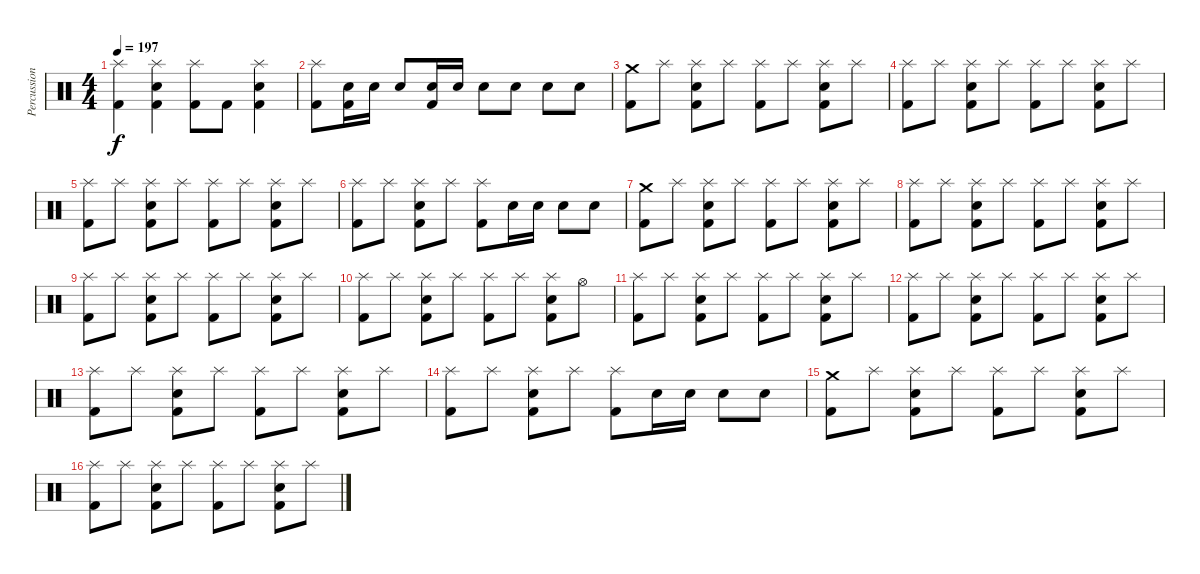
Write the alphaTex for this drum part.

\track ("Percussion" "Percussion") {instrument percussion}
\staff {score}
\articulation defaults
\ts (4 4)
\tempo 197
\clef neutral
\ks c
("Splash (hit)" "Kick (hit) 2").4{dy f} ("Snare (hit) 2" "Splash (hit)" "Kick (hit) 2").4 ("Splash (hit)" "Kick (hit) 2").8 "Kick (hit) 2".8 ("Snare (hit) 2" "Splash (hit)" "Kick (hit) 2").4 |
("Splash (hit)" "Kick (hit) 2").8 ("Snare (hit) 2" "Kick (hit) 2").16 "Snare (hit) 2".16 "Snare (hit) 2".8 ("Snare (hit) 2" "Kick (hit) 2").16 "Snare (hit) 2".16 "Snare (hit) 2".8 "Snare (hit) 2".8 "Snare (hit) 2".8 "Snare (hit) 2".8 |
("Crash medium (hit)" "Kick (hit) 2").8 "Splash (hit)".8 ("Snare (hit) 2" "Splash (hit)" "Kick (hit) 2").8 "Splash (hit)".8 ("Splash (hit)" "Kick (hit) 2").8 "Splash (hit)".8 ("Snare (hit) 2" "Splash (hit)" "Kick (hit) 2").8 "Splash (hit)".8 |
("Splash (hit)" "Kick (hit) 2").8 "Splash (hit)".8 ("Snare (hit) 2" "Splash (hit)" "Kick (hit) 2").8 "Splash (hit)".8 ("Splash (hit)" "Kick (hit) 2").8 "Splash (hit)".8 ("Snare (hit) 2" "Splash (hit)" "Kick (hit) 2").8 "Splash (hit)".8 |
("Splash (hit)" "Kick (hit) 2").8 "Splash (hit)".8 ("Snare (hit) 2" "Splash (hit)" "Kick (hit) 2").8 "Splash (hit)".8 ("Splash (hit)" "Kick (hit) 2").8 "Splash (hit)".8 ("Snare (hit) 2" "Splash (hit)" "Kick (hit) 2").8 "Splash (hit)".8 |
("Splash (hit)" "Kick (hit) 2").8 "Splash (hit)".8 ("Snare (hit) 2" "Splash (hit)" "Kick (hit) 2").8 "Splash (hit)".8 ("Splash (hit)" "Kick (hit) 2").8 "Snare (hit) 2".16 "Snare (hit) 2".16 "Snare (hit) 2".8 "Snare (hit) 2".8 |
("Crash medium (hit)" "Kick (hit) 2").8 "Splash (hit)".8 ("Snare (hit) 2" "Splash (hit)" "Kick (hit) 2").8 "Splash (hit)".8 ("Splash (hit)" "Kick (hit) 2").8 "Splash (hit)".8 ("Snare (hit) 2" "Splash (hit)" "Kick (hit) 2").8 "Splash (hit)".8 |
("Splash (hit)" "Kick (hit) 2").8 "Splash (hit)".8 ("Snare (hit) 2" "Splash (hit)" "Kick (hit) 2").8 "Splash (hit)".8 ("Splash (hit)" "Kick (hit) 2").8 "Splash (hit)".8 ("Snare (hit) 2" "Splash (hit)" "Kick (hit) 2").8 "Splash (hit)".8 |
("Splash (hit)" "Kick (hit) 2").8 "Splash (hit)".8 ("Snare (hit) 2" "Splash (hit)" "Kick (hit) 2").8 "Splash (hit)".8 ("Splash (hit)" "Kick (hit) 2").8 "Splash (hit)".8 ("Snare (hit) 2" "Splash (hit)" "Kick (hit) 2").8 "Splash (hit)".8 |
("Splash (hit)" "Kick (hit) 2").8 "Splash (hit)".8 ("Snare (hit) 2" "Splash (hit)" "Kick (hit) 2").8 "Splash (hit)".8 ("Splash (hit)" "Kick (hit) 2").8 "Splash (hit)".8 ("Snare (hit) 2" "Splash (hit)" "Kick (hit) 2").8 "Hi-Hat (open)".8 |
("Splash (hit)" "Kick (hit) 2").8 "Splash (hit)".8 ("Snare (hit) 2" "Splash (hit)" "Kick (hit) 2").8 "Splash (hit)".8 ("Splash (hit)" "Kick (hit) 2").8 "Splash (hit)".8 ("Snare (hit) 2" "Splash (hit)" "Kick (hit) 2").8 "Splash (hit)".8 |
("Splash (hit)" "Kick (hit) 2").8 "Splash (hit)".8 ("Snare (hit) 2" "Splash (hit)" "Kick (hit) 2").8 "Splash (hit)".8 ("Splash (hit)" "Kick (hit) 2").8 "Splash (hit)".8 ("Snare (hit) 2" "Splash (hit)" "Kick (hit) 2").8 "Splash (hit)".8 |
("Splash (hit)" "Kick (hit) 2").8 "Splash (hit)".8 ("Snare (hit) 2" "Splash (hit)" "Kick (hit) 2").8 "Splash (hit)".8 ("Splash (hit)" "Kick (hit) 2").8 "Splash (hit)".8 ("Snare (hit) 2" "Splash (hit)" "Kick (hit) 2").8 "Splash (hit)".8 |
("Splash (hit)" "Kick (hit) 2").8 "Splash (hit)".8 ("Snare (hit) 2" "Splash (hit)" "Kick (hit) 2").8 "Splash (hit)".8 ("Splash (hit)" "Kick (hit) 2").8 "Snare (hit) 2".16 "Snare (hit) 2".16 "Snare (hit) 2".8 "Snare (hit) 2".8 |
("Crash medium (hit)" "Kick (hit) 2").8 "Splash (hit)".8 ("Snare (hit) 2" "Splash (hit)" "Kick (hit) 2").8 "Splash (hit)".8 ("Splash (hit)" "Kick (hit) 2").8 "Splash (hit)".8 ("Snare (hit) 2" "Splash (hit)" "Kick (hit) 2").8 "Splash (hit)".8 |
("Splash (hit)" "Kick (hit) 2").8 "Splash (hit)".8 ("Snare (hit) 2" "Splash (hit)" "Kick (hit) 2").8 "Splash (hit)".8 ("Splash (hit)" "Kick (hit) 2").8 "Splash (hit)".8 ("Snare (hit) 2" "Splash (hit)" "Kick (hit) 2").8 "Splash (hit)".8
